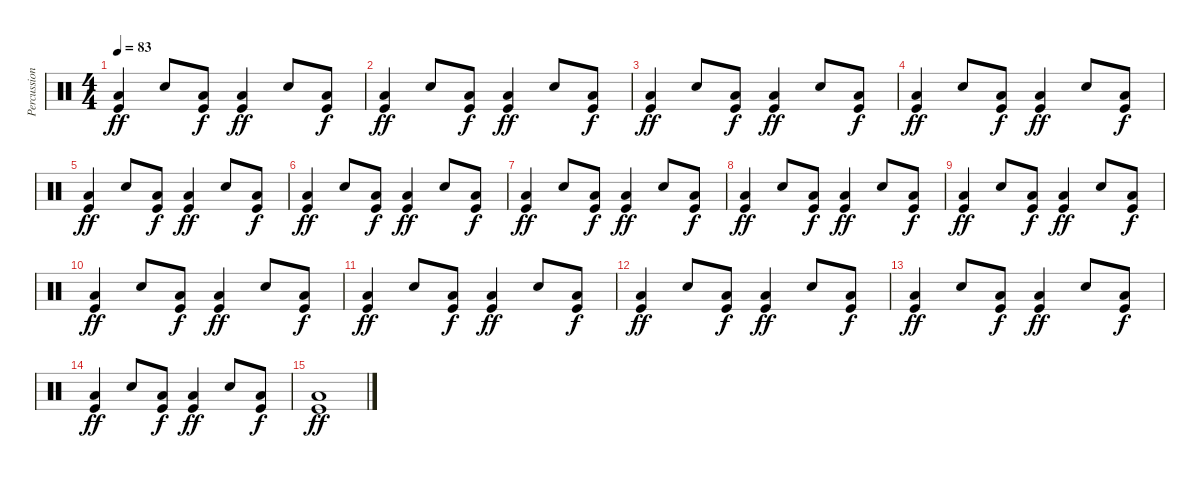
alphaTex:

\track ("Percussion" "Percussion") {instrument percussion}
\staff {score}
\articulation defaults
\ts (4 4)
\tempo 83
\clef neutral
\ks c
("Kick (hit)" "Low Tom (hit)").4{dy ff} "Snare (hit) 2".8 ("Kick (hit)" "Low Tom (hit)").8{dy f} ("Kick (hit)" "Low Tom (hit)").4{dy ff} "Snare (hit) 2".8 ("Kick (hit)" "Low Tom (hit)").8{dy f} |
("Kick (hit)" "Low Tom (hit)").4{dy ff} "Snare (hit) 2".8 ("Kick (hit)" "Low Tom (hit)").8{dy f} ("Kick (hit)" "Low Tom (hit)").4{dy ff} "Snare (hit) 2".8 ("Kick (hit)" "Low Tom (hit)").8{dy f} |
("Kick (hit)" "Low Tom (hit)").4{dy ff} "Snare (hit) 2".8 ("Kick (hit)" "Low Tom (hit)").8{dy f} ("Kick (hit)" "Low Tom (hit)").4{dy ff} "Snare (hit) 2".8 ("Kick (hit)" "Low Tom (hit)").8{dy f} |
("Kick (hit)" "Low Tom (hit)").4{dy ff} "Snare (hit) 2".8 ("Kick (hit)" "Low Tom (hit)").8{dy f} ("Kick (hit)" "Low Tom (hit)").4{dy ff} "Snare (hit) 2".8 ("Kick (hit)" "Low Tom (hit)").8{dy f} |
("Kick (hit)" "Low Tom (hit)").4{dy ff} "Snare (hit) 2".8 ("Kick (hit)" "Low Tom (hit)").8{dy f} ("Kick (hit)" "Low Tom (hit)").4{dy ff} "Snare (hit) 2".8 ("Kick (hit)" "Low Tom (hit)").8{dy f} |
("Kick (hit)" "Low Tom (hit)").4{dy ff} "Snare (hit) 2".8 ("Kick (hit)" "Low Tom (hit)").8{dy f} ("Kick (hit)" "Low Tom (hit)").4{dy ff} "Snare (hit) 2".8 ("Kick (hit)" "Low Tom (hit)").8{dy f} |
("Kick (hit)" "Low Tom (hit)").4{dy ff} "Snare (hit) 2".8 ("Kick (hit)" "Low Tom (hit)").8{dy f} ("Kick (hit)" "Low Tom (hit)").4{dy ff} "Snare (hit) 2".8 ("Kick (hit)" "Low Tom (hit)").8{dy f} |
("Kick (hit)" "Low Tom (hit)").4{dy ff} "Snare (hit) 2".8 ("Kick (hit)" "Low Tom (hit)").8{dy f} ("Kick (hit)" "Low Tom (hit)").4{dy ff} "Snare (hit) 2".8 ("Kick (hit)" "Low Tom (hit)").8{dy f} |
("Kick (hit)" "Low Tom (hit)").4{dy ff} "Snare (hit) 2".8 ("Kick (hit)" "Low Tom (hit)").8{dy f} ("Kick (hit)" "Low Tom (hit)").4{dy ff} "Snare (hit) 2".8 ("Kick (hit)" "Low Tom (hit)").8{dy f} |
("Kick (hit)" "Low Tom (hit)").4{dy ff} "Snare (hit) 2".8 ("Kick (hit)" "Low Tom (hit)").8{dy f} ("Kick (hit)" "Low Tom (hit)").4{dy ff} "Snare (hit) 2".8 ("Kick (hit)" "Low Tom (hit)").8{dy f} |
("Kick (hit)" "Low Tom (hit)").4{dy ff} "Snare (hit) 2".8 ("Kick (hit)" "Low Tom (hit)").8{dy f} ("Kick (hit)" "Low Tom (hit)").4{dy ff} "Snare (hit) 2".8 ("Kick (hit)" "Low Tom (hit)").8{dy f} |
("Kick (hit)" "Low Tom (hit)").4{dy ff} "Snare (hit) 2".8 ("Kick (hit)" "Low Tom (hit)").8{dy f} ("Kick (hit)" "Low Tom (hit)").4{dy ff} "Snare (hit) 2".8 ("Kick (hit)" "Low Tom (hit)").8{dy f} |
("Kick (hit)" "Low Tom (hit)").4{dy ff} "Snare (hit) 2".8 ("Kick (hit)" "Low Tom (hit)").8{dy f} ("Kick (hit)" "Low Tom (hit)").4{dy ff} "Snare (hit) 2".8 ("Kick (hit)" "Low Tom (hit)").8{dy f} |
("Kick (hit)" "Low Tom (hit)").4{dy ff} "Snare (hit) 2".8 ("Kick (hit)" "Low Tom (hit)").8{dy f} ("Kick (hit)" "Low Tom (hit)").4{dy ff} "Snare (hit) 2".8 ("Kick (hit)" "Low Tom (hit)").8{dy f} |
("Kick (hit)" "Low Tom (hit)").1{dy ff}
